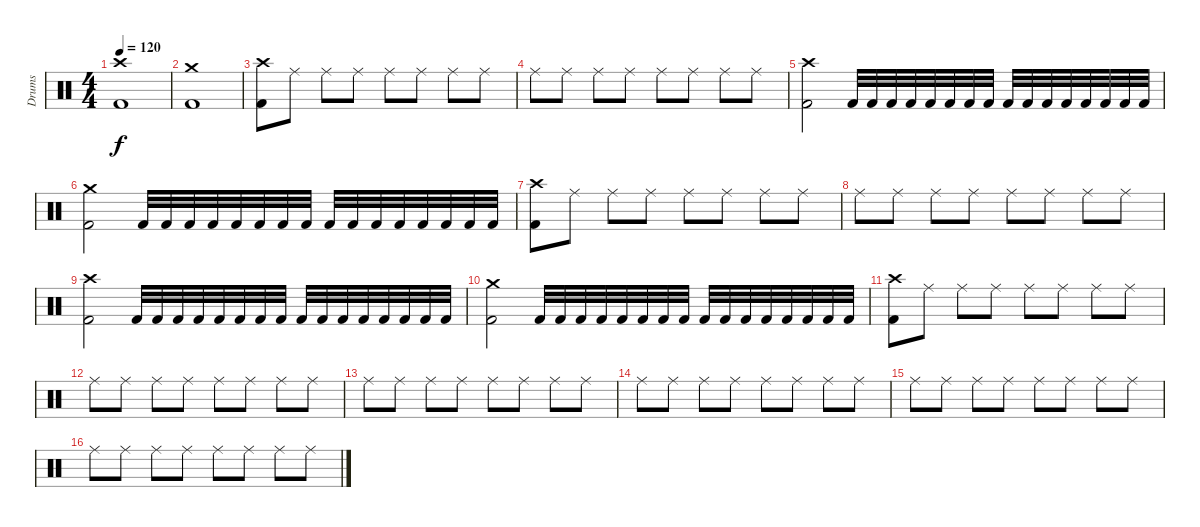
\track ("Drums" "Drums") {instrument percussion}
\staff {score}
\articulation defaults
\ts (4 4)
\tempo 120
\clef neutral
\ks c
("Crash high (hit)" "Kick (hit) 2").1{dy f} |
("Crash medium (hit)" "Kick (hit) 2").1 |
("Crash high (hit)" "Kick (hit) 2").8 "Ride (middle)".8 "Ride (middle)".8 "Ride (middle)".8 "Ride (middle)".8 "Ride (middle)".8 "Ride (middle)".8 "Ride (middle)".8 |
"Ride (middle)".8 "Ride (middle)".8 "Ride (middle)".8 "Ride (middle)".8 "Ride (middle)".8 "Ride (middle)".8 "Ride (middle)".8 "Ride (middle)".8 |
("Crash high (hit)" "Kick (hit) 2").2 "Kick (hit) 2".32 "Kick (hit) 2".32 "Kick (hit) 2".32 "Kick (hit) 2".32 "Kick (hit) 2".32 "Kick (hit) 2".32 "Kick (hit) 2".32 "Kick (hit) 2".32 "Kick (hit) 2".32 "Kick (hit) 2".32 "Kick (hit) 2".32 "Kick (hit) 2".32 "Kick (hit) 2".32 "Kick (hit) 2".32 "Kick (hit) 2".32 "Kick (hit) 2".32 |
("Crash medium (hit)" "Kick (hit) 2").2 "Kick (hit) 2".32 "Kick (hit) 2".32 "Kick (hit) 2".32 "Kick (hit) 2".32 "Kick (hit) 2".32 "Kick (hit) 2".32 "Kick (hit) 2".32 "Kick (hit) 2".32 "Kick (hit) 2".32 "Kick (hit) 2".32 "Kick (hit) 2".32 "Kick (hit) 2".32 "Kick (hit) 2".32 "Kick (hit) 2".32 "Kick (hit) 2".32 "Kick (hit) 2".32 |
("Crash high (hit)" "Kick (hit) 2").8 "Ride (middle)".8 "Ride (middle)".8 "Ride (middle)".8 "Ride (middle)".8 "Ride (middle)".8 "Ride (middle)".8 "Ride (middle)".8 |
"Ride (middle)".8 "Ride (middle)".8 "Ride (middle)".8 "Ride (middle)".8 "Ride (middle)".8 "Ride (middle)".8 "Ride (middle)".8 "Ride (middle)".8 |
("Crash high (hit)" "Kick (hit) 2").2 "Kick (hit) 2".32 "Kick (hit) 2".32 "Kick (hit) 2".32 "Kick (hit) 2".32 "Kick (hit) 2".32 "Kick (hit) 2".32 "Kick (hit) 2".32 "Kick (hit) 2".32 "Kick (hit) 2".32 "Kick (hit) 2".32 "Kick (hit) 2".32 "Kick (hit) 2".32 "Kick (hit) 2".32 "Kick (hit) 2".32 "Kick (hit) 2".32 "Kick (hit) 2".32 |
("Crash medium (hit)" "Kick (hit) 2").2 "Kick (hit) 2".32 "Kick (hit) 2".32 "Kick (hit) 2".32 "Kick (hit) 2".32 "Kick (hit) 2".32 "Kick (hit) 2".32 "Kick (hit) 2".32 "Kick (hit) 2".32 "Kick (hit) 2".32 "Kick (hit) 2".32 "Kick (hit) 2".32 "Kick (hit) 2".32 "Kick (hit) 2".32 "Kick (hit) 2".32 "Kick (hit) 2".32 "Kick (hit) 2".32 |
("Crash high (hit)" "Kick (hit) 2").8 "Ride (middle)".8 "Ride (middle)".8 "Ride (middle)".8 "Ride (middle)".8 "Ride (middle)".8 "Ride (middle)".8 "Ride (middle)".8 |
"Ride (middle)".8 "Ride (middle)".8 "Ride (middle)".8 "Ride (middle)".8 "Ride (middle)".8 "Ride (middle)".8 "Ride (middle)".8 "Ride (middle)".8 |
"Ride (middle)".8 "Ride (middle)".8 "Ride (middle)".8 "Ride (middle)".8 "Ride (middle)".8 "Ride (middle)".8 "Ride (middle)".8 "Ride (middle)".8 |
"Ride (middle)".8 "Ride (middle)".8 "Ride (middle)".8 "Ride (middle)".8 "Ride (middle)".8 "Ride (middle)".8 "Ride (middle)".8 "Ride (middle)".8 |
"Ride (middle)".8 "Ride (middle)".8 "Ride (middle)".8 "Ride (middle)".8 "Ride (middle)".8 "Ride (middle)".8 "Ride (middle)".8 "Ride (middle)".8 |
"Ride (middle)".8 "Ride (middle)".8 "Ride (middle)".8 "Ride (middle)".8 "Ride (middle)".8 "Ride (middle)".8 "Ride (middle)".8 "Ride (middle)".8
